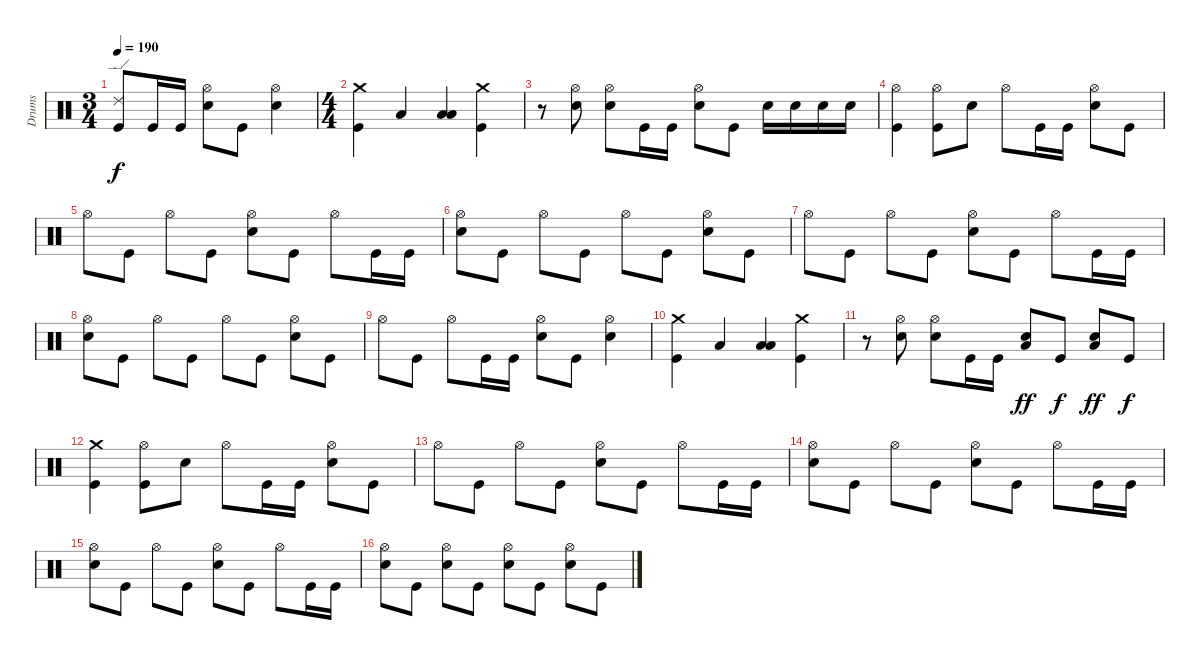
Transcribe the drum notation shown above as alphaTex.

\track ("Drums" "Drums") {instrument percussion}
\staff {score}
\articulation defaults
\ts (3 4)
\tempo 190
\clef neutral
\ks c
("Ride (edge) 2" "Kick (hit)").8{dy f} "Kick (hit)".16 "Kick (hit)".16 ("Hi-Hat (open)" "Electric Snare (hit)").8 "Kick (hit)".8 ("Hi-Hat (open)" "Electric Snare (hit)").4 |
\ts (4 4)
("Crash medium (hit)" "Kick (hit)").4 "Low Floor Tom (hit)".4 ("Low Floor Tom (hit)" "Low Floor Tom (hit)").4{bd 480} ("Crash medium (hit)" "Kick (hit)").4 |
r.8 ("Hi-Hat (open)" "Electric Snare (hit)").8 ("Hi-Hat (open)" "Electric Snare (hit)").8 "Kick (hit)".16 "Kick (hit)".16 ("Hi-Hat (open)" "Electric Snare (hit)").8 "Kick (hit)".8 "Electric Snare (hit)".16 "Electric Snare (hit)".16 "Electric Snare (hit)".16 "Electric Snare (hit)".16 |
("Hi-Hat (open)" "Kick (hit)").4 ("Hi-Hat (open)" "Kick (hit)").8 "Electric Snare (hit)".8 "Hi-Hat (open)".8 "Kick (hit)".16 "Kick (hit)".16 ("Hi-Hat (open)" "Electric Snare (hit)").8 "Kick (hit)".8 |
"Hi-Hat (open)".8 "Kick (hit)".8 "Hi-Hat (open)".8 "Kick (hit)".8 ("Hi-Hat (open)" "Electric Snare (hit)").8 "Kick (hit)".8 "Hi-Hat (open)".8 "Kick (hit)".16 "Kick (hit)".16 |
("Hi-Hat (open)" "Electric Snare (hit)").8 "Kick (hit)".8 "Hi-Hat (open)".8 "Kick (hit)".8 "Hi-Hat (open)".8 "Kick (hit)".8 ("Hi-Hat (open)" "Electric Snare (hit)").8 "Kick (hit)".8 |
"Hi-Hat (open)".8 "Kick (hit)".8 "Hi-Hat (open)".8 "Kick (hit)".8 ("Hi-Hat (open)" "Electric Snare (hit)").8 "Kick (hit)".8 "Hi-Hat (open)".8 "Kick (hit)".16 "Kick (hit)".16 |
("Hi-Hat (open)" "Electric Snare (hit)").8 "Kick (hit)".8 "Hi-Hat (open)".8 "Kick (hit)".8 "Hi-Hat (open)".8 "Kick (hit)".8 ("Hi-Hat (open)" "Electric Snare (hit)").8 "Kick (hit)".8 |
"Hi-Hat (open)".8 "Kick (hit)".8 "Hi-Hat (open)".8 "Kick (hit)".16 "Kick (hit)".16 ("Hi-Hat (open)" "Electric Snare (hit)").8 "Kick (hit)".8 ("Hi-Hat (open)" "Electric Snare (hit)").4 |
("Crash medium (hit)" "Kick (hit)").4 "Low Floor Tom (hit)".4 ("Low Floor Tom (hit)" "Low Floor Tom (hit)").4{bd 480} ("Crash medium (hit)" "Kick (hit)").4 |
r.8 ("Hi-Hat (open)" "Electric Snare (hit)").8 ("Hi-Hat (open)" "Electric Snare (hit)").8 "Kick (hit)".16 "Kick (hit)".16 ("Low Tom (hit)" "Electric Snare (hit)").8{dy ff} "Kick (hit)".8{dy f} ("Low Tom (hit)" "Electric Snare (hit)").8{dy ff} "Kick (hit)".8{dy f} |
("Crash medium (hit)" "Kick (hit)").4 ("Hi-Hat (open)" "Kick (hit)").8 "Electric Snare (hit)".8 "Hi-Hat (open)".8 "Kick (hit)".16 "Kick (hit)".16 ("Hi-Hat (open)" "Electric Snare (hit)").8 "Kick (hit)".8 |
"Hi-Hat (open)".8 "Kick (hit)".8 "Hi-Hat (open)".8 "Kick (hit)".8 ("Hi-Hat (open)" "Electric Snare (hit)").8 "Kick (hit)".8 "Hi-Hat (open)".8 "Kick (hit)".16 "Kick (hit)".16 |
("Hi-Hat (open)" "Electric Snare (hit)").8 "Kick (hit)".8 "Hi-Hat (open)".8 "Kick (hit)".8 ("Hi-Hat (open)" "Electric Snare (hit)").8 "Kick (hit)".8 "Hi-Hat (open)".8 "Kick (hit)".16 "Kick (hit)".16 |
("Hi-Hat (open)" "Electric Snare (hit)").8 "Kick (hit)".8 "Hi-Hat (open)".8 "Kick (hit)".8 ("Hi-Hat (open)" "Electric Snare (hit)").8 "Kick (hit)".8 "Hi-Hat (open)".8 "Kick (hit)".16 "Kick (hit)".16 |
("Hi-Hat (open)" "Electric Snare (hit)").8 "Kick (hit)".8 ("Hi-Hat (open)" "Electric Snare (hit)").8 "Kick (hit)".8 ("Hi-Hat (open)" "Electric Snare (hit)").8 "Kick (hit)".8 ("Hi-Hat (open)" "Electric Snare (hit)").8 "Kick (hit)".8
